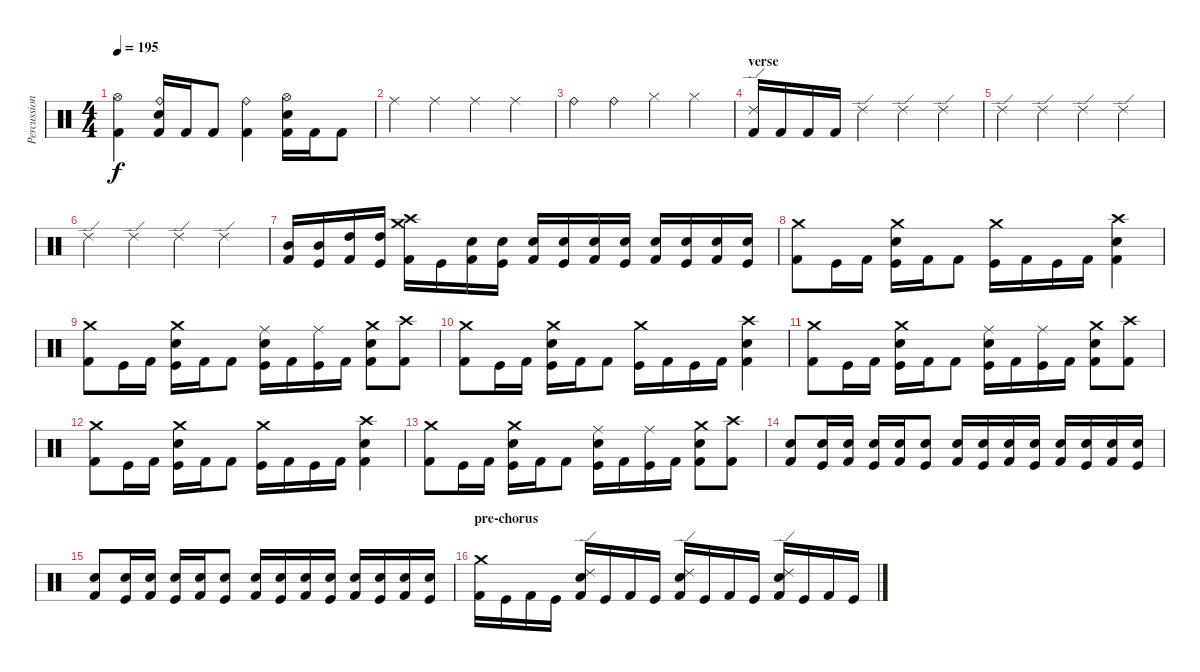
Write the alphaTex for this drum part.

\track ("Percussion" "Percussion") {instrument percussion}
\staff {score}
\articulation defaults
\ts (4 4)
\tempo 195
\clef neutral
\ks c
("Hi-Hat (open)" "Kick (hit) 2").4{dy f} ("Ride (bell)" "Electric Snare (hit)" "Kick (hit) 2").16 "Kick (hit) 2".16 "Kick (hit) 2".8 ("Ride (bell)" "Kick (hit) 2").4 ("Hi-Hat (open)" "Electric Snare (hit)" "Kick (hit) 2").16 "Kick (hit) 2".16 "Kick (hit) 2".8 |
"Ride (middle)".4 "Ride (middle)".4 "Ride (middle)".4 "Ride (middle)".4 |
"Ride (bell)".4 "Ride (bell)".4 "Hi-Hat (closed)".4 "Hi-Hat (closed)".4 |
\section ("" "verse")
("Ride (edge) 2" "Kick (hit) 2").16 "Kick (hit) 2".16 "Kick (hit) 2".16 "Kick (hit) 2".16 "Ride (edge) 2".4 "Ride (edge) 2".4 "Ride (edge) 2".4 |
"Ride (edge) 2".4 "Ride (edge) 2".4 "Ride (edge) 2".4 "Ride (edge) 2".4 |
"Ride (edge) 2".4 "Ride (edge) 2".4 "Ride (edge) 2".4 "Ride (edge) 2".4 |
("Mid Tom (hit)" "Kick (hit) 2").16 ("Mid Tom (hit)" "Kick (hit)").16 ("High Tom (hit)" "Kick (hit) 2").16 ("High Tom (hit)" "Kick (hit)").16 ("Crash medium (hit)" "Crash high (hit)" "Kick (hit) 2").16 "Kick (hit)".16 ("Electric Snare (hit)" "Kick (hit) 2").16 ("Electric Snare (hit)" "Kick (hit)").16 ("Electric Snare (hit)" "Kick (hit) 2").16 ("Electric Snare (hit)" "Kick (hit)").16 ("Electric Snare (hit)" "Kick (hit) 2").16 ("Electric Snare (hit)" "Kick (hit)").16 ("Electric Snare (hit)" "Kick (hit) 2").16 ("Electric Snare (hit)" "Kick (hit)").16 ("Electric Snare (hit)" "Kick (hit) 2").16 ("Electric Snare (hit)" "Kick (hit)").16 |
("Crash medium (hit)" "Kick (hit) 2").8 "Kick (hit)".16 "Kick (hit) 2".16 ("Crash medium (hit)" "Electric Snare (hit)" "Kick (hit)").16 "Kick (hit) 2".16 "Kick (hit) 2".8 ("Crash medium (hit)" "Kick (hit)").16 "Kick (hit) 2".16 "Kick (hit)".16 "Kick (hit) 2".16 ("Crash high (hit)" "Electric Snare (hit)" "Kick (hit) 2").4 |
("Crash medium (hit)" "Kick (hit) 2").8 "Kick (hit)".16 "Kick (hit) 2".16 ("Crash medium (hit)" "Electric Snare (hit)" "Kick (hit)").16 "Kick (hit) 2".16 "Kick (hit) 2".8 ("Ride (middle)" "Electric Snare (hit)" "Kick (hit)").16 "Kick (hit) 2".16 ("Ride (middle)" "Kick (hit)").16 "Kick (hit) 2".16 ("Crash medium (hit)" "Electric Snare (hit)" "Kick (hit) 2").8 ("Crash high (hit)" "Kick (hit) 2").8 |
("Crash medium (hit)" "Kick (hit) 2").8 "Kick (hit)".16 "Kick (hit) 2".16 ("Crash medium (hit)" "Electric Snare (hit)" "Kick (hit)").16 "Kick (hit) 2".16 "Kick (hit) 2".8 ("Crash medium (hit)" "Kick (hit)").16 "Kick (hit) 2".16 "Kick (hit)".16 "Kick (hit) 2".16 ("Crash high (hit)" "Electric Snare (hit)" "Kick (hit) 2").4 |
("Crash medium (hit)" "Kick (hit) 2").8 "Kick (hit)".16 "Kick (hit) 2".16 ("Crash medium (hit)" "Electric Snare (hit)" "Kick (hit)").16 "Kick (hit) 2".16 "Kick (hit) 2".8 ("Ride (middle)" "Electric Snare (hit)" "Kick (hit)").16 "Kick (hit) 2".16 ("Ride (middle)" "Kick (hit)").16 "Kick (hit) 2".16 ("Crash medium (hit)" "Electric Snare (hit)" "Kick (hit) 2").8 ("Crash high (hit)" "Kick (hit) 2").8 |
("Crash medium (hit)" "Kick (hit) 2").8 "Kick (hit)".16 "Kick (hit) 2".16 ("Crash medium (hit)" "Electric Snare (hit)" "Kick (hit)").16 "Kick (hit) 2".16 "Kick (hit) 2".8 ("Crash medium (hit)" "Kick (hit)").16 "Kick (hit) 2".16 "Kick (hit)".16 "Kick (hit) 2".16 ("Crash high (hit)" "Electric Snare (hit)" "Kick (hit) 2").4 |
("Crash medium (hit)" "Kick (hit) 2").8 "Kick (hit)".16 "Kick (hit) 2".16 ("Crash medium (hit)" "Electric Snare (hit)" "Kick (hit)").16 "Kick (hit) 2".16 "Kick (hit) 2".8 ("Ride (middle)" "Electric Snare (hit)" "Kick (hit)").16 "Kick (hit) 2".16 ("Ride (middle)" "Kick (hit)").16 "Kick (hit) 2".16 ("Crash medium (hit)" "Electric Snare (hit)" "Kick (hit) 2").8 ("Crash high (hit)" "Kick (hit) 2").8 |
("Electric Snare (hit)" "Kick (hit) 2").8 ("Electric Snare (hit)" "Kick (hit)").16 ("Electric Snare (hit)" "Kick (hit) 2").16 ("Electric Snare (hit)" "Kick (hit)").16 ("Electric Snare (hit)" "Kick (hit) 2").16 ("Electric Snare (hit)" "Kick (hit)").8 ("Electric Snare (hit)" "Kick (hit) 2").16 ("Electric Snare (hit)" "Kick (hit)").16 ("Electric Snare (hit)" "Kick (hit) 2").16 ("Electric Snare (hit)" "Kick (hit)").16 ("Electric Snare (hit)" "Kick (hit) 2").16 ("Electric Snare (hit)" "Kick (hit)").16 ("Electric Snare (hit)" "Kick (hit) 2").16 ("Electric Snare (hit)" "Kick (hit)").16 |
("Electric Snare (hit)" "Kick (hit) 2").8 ("Electric Snare (hit)" "Kick (hit)").16 ("Electric Snare (hit)" "Kick (hit) 2").16 ("Electric Snare (hit)" "Kick (hit)").16 ("Electric Snare (hit)" "Kick (hit) 2").16 ("Electric Snare (hit)" "Kick (hit)").8 ("Electric Snare (hit)" "Kick (hit) 2").16 ("Electric Snare (hit)" "Kick (hit)").16 ("Electric Snare (hit)" "Kick (hit) 2").16 ("Electric Snare (hit)" "Kick (hit)").16 ("Electric Snare (hit)" "Kick (hit) 2").16 ("Electric Snare (hit)" "Kick (hit)").16 ("Electric Snare (hit)" "Kick (hit) 2").16 ("Electric Snare (hit)" "Kick (hit)").16 |
\section ("" "pre-chorus")
("Crash medium (hit)" "Kick (hit) 2").16 "Kick (hit)".16 "Kick (hit) 2".16 "Kick (hit)".16 ("Ride (edge) 2" "Electric Snare (hit)" "Kick (hit) 2").16 "Kick (hit)".16 "Kick (hit) 2".16 "Kick (hit)".16 ("Ride (edge) 2" "Electric Snare (hit)" "Kick (hit) 2").16 "Kick (hit)".16 "Kick (hit) 2".16 "Kick (hit)".16 ("Ride (edge) 2" "Electric Snare (hit)" "Kick (hit) 2").16 "Kick (hit)".16 "Kick (hit) 2".16 "Kick (hit)".16
